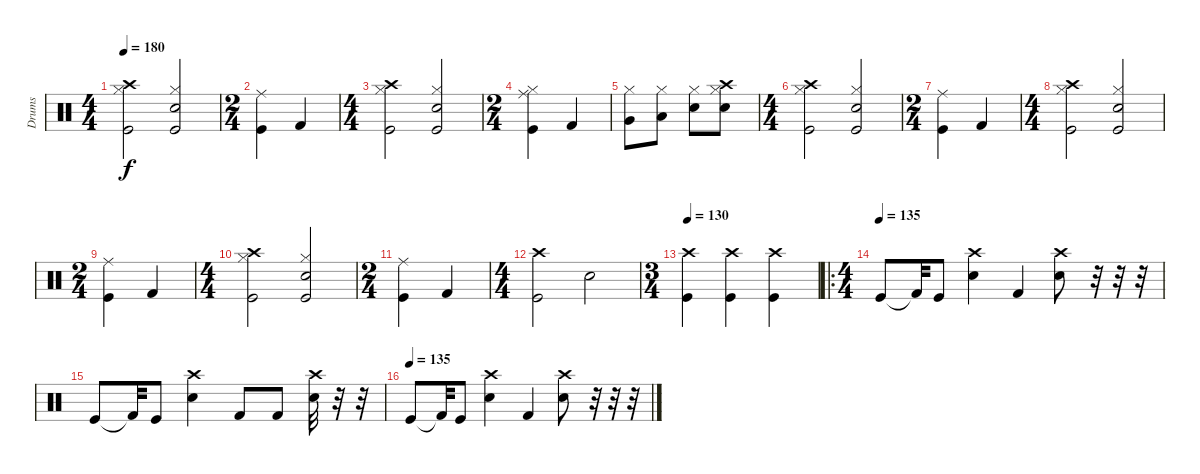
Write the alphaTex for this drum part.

\track ("Drums" "Drums") {instrument percussion}
\staff {score}
\articulation defaults
\ts (4 4)
\tempo 180
\clef neutral
\ks c
("Crash high (hit)" "Kick (hit)" "Hi-Hat (closed)").2{dy f} ("Snare (hit) 2" "Kick (hit)" "Hi-Hat (closed)").2 |
\ts (2 4)
("Ride (middle)" "Kick (hit)").4 "Kick (hit) 2".4 |
\ts (4 4)
("Crash high (hit)" "Kick (hit)" "Hi-Hat (closed)").2 ("Snare (hit) 2" "Kick (hit)" "Hi-Hat (closed)").2 |
\ts (2 4)
("Ride (middle)" "Kick (hit)" "Hi-Hat (closed)").4 "Kick (hit) 2".4 |
("Very Low Tom (hit)" "Hi-Hat (closed)").8 ("Low Tom (hit)" "Hi-Hat (closed)").8 ("Snare (hit) 2" "Hi-Hat (closed)").8 ("Crash high (hit)" "Snare (hit) 2" "Hi-Hat (closed)").8 |
\ts (4 4)
("Crash high (hit)" "Kick (hit)" "Hi-Hat (closed)").2 ("Snare (hit) 2" "Kick (hit)" "Hi-Hat (closed)").2 |
\ts (2 4)
("Ride (middle)" "Kick (hit)").4 "Kick (hit) 2".4 |
\ts (4 4)
("Crash high (hit)" "Kick (hit)" "Hi-Hat (closed)").2 ("Snare (hit) 2" "Kick (hit)" "Hi-Hat (closed)").2 |
\ts (2 4)
("Ride (middle)" "Kick (hit)").4 "Kick (hit) 2".4 |
\ts (4 4)
("Crash high (hit)" "Kick (hit)" "Hi-Hat (closed)").2 ("Snare (hit) 2" "Kick (hit)" "Hi-Hat (closed)").2 |
\ts (2 4)
("Ride (middle)" "Kick (hit)").4 "Kick (hit) 2".4 |
\ts (4 4)
("Crash high (hit)" "Kick (hit)").2 "Snare (hit) 2".2 |
\ts (3 4)
\tempo 130
("Crash high (hit)" "Kick (hit)").4 ("Crash high (hit)" "Kick (hit)").4 ("Crash high (hit)" "Kick (hit)").4 |
\ro
\ts (4 4)
\tempo (135)
"Kick (hit)".8 "Kick (hit) 2"{t}.32 "Kick (hit)".8 ("Crash high (hit)" "Snare (hit) 2").4 "Kick (hit) 2".4 ("Crash high (hit)" "Snare (hit) 2").8 r.32 r.32 r.32 |
"Kick (hit)".8 "Kick (hit) 2"{t}.32 "Kick (hit)".8 ("Crash high (hit)" "Snare (hit) 2").4 "Kick (hit) 2".8 "Kick (hit) 2".8 ("Crash high (hit)" "Snare (hit) 2").32 r.32 r.32 |
\tempo (135)
"Kick (hit)".8 "Kick (hit) 2"{t}.32 "Kick (hit)".8 ("Crash high (hit)" "Snare (hit) 2").4 "Kick (hit) 2".4 ("Crash high (hit)" "Snare (hit) 2").8 r.32 r.32 r.32
